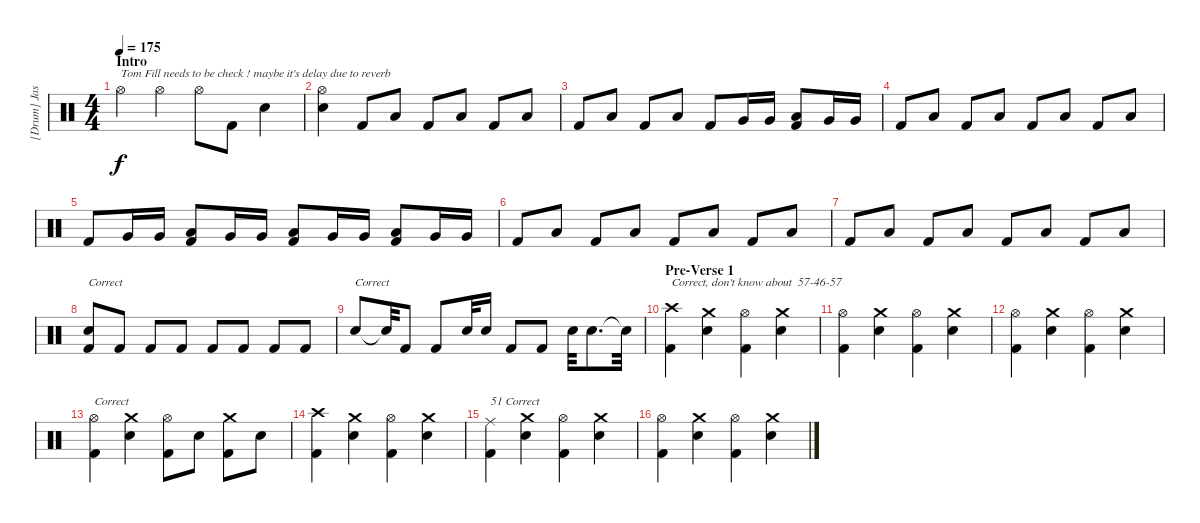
\track ("[Drum] Jason \"Shakes\" West" "[Drum] Jas") {instrument percussion}
\staff {score}
\articulation defaults
\ts (4 4)
\section ("" "Intro")
\tempo 175
\clef neutral
\ks c "Hi-Hat (open)".4{txt "Tom Fill needs to be check ! maybe it's delay due to reverb" dy f} "Hi-Hat (open)".4 "Hi-Hat (open)".8 "Kick (hit) 2".8 "Electric Snare (hit)".4
|
("Hi-Hat (open)" "Electric Snare (hit)").4 "Kick (hit) 2".8 "Low Floor Tom (hit)".8 "Kick (hit) 2".8 "Low Floor Tom (hit)".8 "Kick (hit) 2".8 "Low Floor Tom (hit)".8 |
"Kick (hit) 2".8 "Low Floor Tom (hit)".8 "Kick (hit) 2".8 "Low Floor Tom (hit)".8 "Kick (hit) 2".8 "Very Low Tom (hit)".16 "Very Low Tom (hit)".16 ("Low Floor Tom (hit)" "Kick (hit) 2").8 "Very Low Tom (hit)".16 "Very Low Tom (hit)".16 |
"Kick (hit) 2".8 "Low Floor Tom (hit)".8 "Kick (hit) 2".8 "Low Floor Tom (hit)".8 "Kick (hit) 2".8 "Low Floor Tom (hit)".8 "Kick (hit) 2".8 "Low Floor Tom (hit)".8 |
"Kick (hit) 2".8 "Very Low Tom (hit)".16 "Very Low Tom (hit)".16 ("Low Floor Tom (hit)" "Kick (hit) 2").8 "Very Low Tom (hit)".16 "Very Low Tom (hit)".16 ("Low Floor Tom (hit)" "Kick (hit) 2").8 "Very Low Tom (hit)".16 "Very Low Tom (hit)".16 ("Low Floor Tom (hit)" "Kick (hit) 2").8 "Very Low Tom (hit)".16 "Very Low Tom (hit)".16 |
"Kick (hit) 2".8 "Low Floor Tom (hit)".8 "Kick (hit) 2".8 "Low Floor Tom (hit)".8 "Kick (hit) 2".8 "Low Floor Tom (hit)".8 "Kick (hit) 2".8 "Low Floor Tom (hit)".8 |
"Kick (hit) 2".8 "Low Floor Tom (hit)".8 "Kick (hit) 2".8 "Low Floor Tom (hit)".8 "Kick (hit) 2".8 "Low Floor Tom (hit)".8 "Kick (hit) 2".8 "Low Floor Tom (hit)".8 |
("Electric Snare (hit)" "Kick (hit) 2").8{txt "Correct"} "Kick (hit) 2".8 "Kick (hit) 2".8 "Kick (hit) 2".8 "Kick (hit) 2".8 "Kick (hit) 2".8 "Kick (hit) 2".8 "Kick (hit) 2".8 |
"Electric Snare (hit)".8{txt "Correct"} "Electric Snare (hit)"{t}.32 "Kick (hit) 2".8 "Kick (hit) 2".8 "Electric Snare (hit)".32 "Electric Snare (hit)".16 "Kick (hit) 2".8 "Kick (hit) 2".8 "Electric Snare (hit)".32 "Electric Snare (hit)".8{d} "Electric Snare (hit)"{t}.32 |
\section ("" "Pre-Verse 1")
("Crash high (hit)" "Kick (hit) 2").4{txt "Correct, don't know about  57-46-57"} ("Crash medium (hit)" "Electric Snare (hit)").4 ("Hi-Hat (open)" "Kick (hit) 2").4 ("Crash medium (hit)" "Electric Snare (hit)").4 |
("Hi-Hat (open)" "Kick (hit) 2").4 ("Crash medium (hit)" "Electric Snare (hit)").4 ("Hi-Hat (open)" "Kick (hit) 2").4 ("Crash medium (hit)" "Electric Snare (hit)").4 |
("Hi-Hat (open)" "Kick (hit) 2").4 ("Crash medium (hit)" "Electric Snare (hit)").4 ("Hi-Hat (open)" "Kick (hit) 2").4 ("Crash medium (hit)" "Electric Snare (hit)").4 |
("Hi-Hat (open)" "Kick (hit) 2").4{txt "Correct"} ("Crash medium (hit)" "Electric Snare (hit)").4 ("Hi-Hat (open)" "Kick (hit) 2").8 "Electric Snare (hit)".8 ("Crash medium (hit)" "Kick (hit) 2").8 "Electric Snare (hit)".8 |
("Crash high (hit)" "Kick (hit) 2").4 ("Crash medium (hit)" "Electric Snare (hit)").4 ("Hi-Hat (open)" "Kick (hit) 2").4 ("Crash medium (hit)" "Electric Snare (hit)").4 |
("Ride (middle)" "Kick (hit) 2").4{txt "51 Correct"} ("Crash medium (hit)" "Electric Snare (hit)").4 ("Hi-Hat (open)" "Kick (hit) 2").4 ("Crash medium (hit)" "Electric Snare (hit)").4 |
("Hi-Hat (open)" "Kick (hit) 2").4 ("Crash medium (hit)" "Electric Snare (hit)").4 ("Hi-Hat (open)" "Kick (hit) 2").4 ("Crash medium (hit)" "Electric Snare (hit)").4
